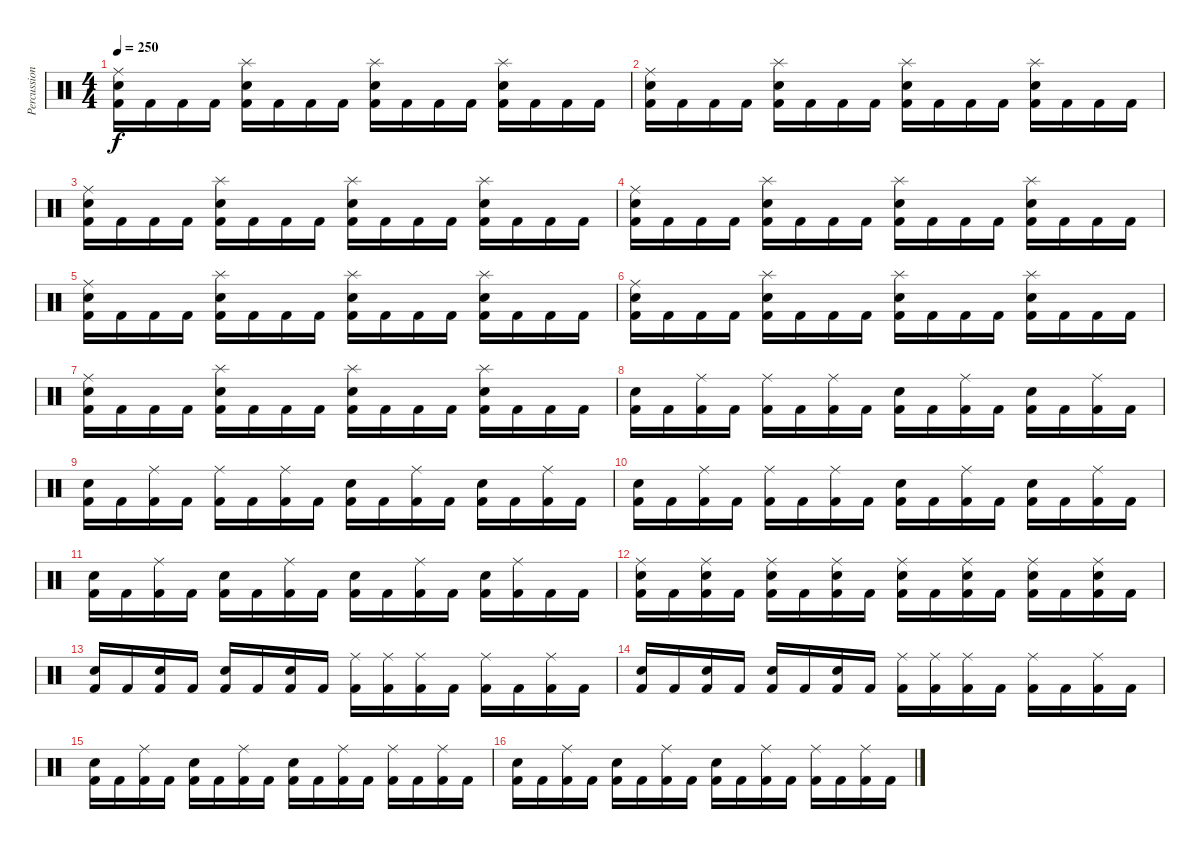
\track ("Percussion" "Percussion") {instrument percussion}
\staff {score}
\articulation defaults
\ts (4 4)
\tempo 250
\clef neutral
\ks c
("Ride (middle)" "Electric Snare (hit)" "Kick (hit) 2").16{dy f} "Kick (hit) 2".16 "Kick (hit) 2".16 "Kick (hit) 2".16 ("Splash (hit)" "Electric Snare (hit)" "Kick (hit) 2").16 "Kick (hit) 2".16 "Kick (hit) 2".16 "Kick (hit) 2".16 ("Splash (hit)" "Electric Snare (hit)" "Kick (hit) 2").16 "Kick (hit) 2".16 "Kick (hit) 2".16 "Kick (hit) 2".16 ("Splash (hit)" "Electric Snare (hit)" "Kick (hit) 2").16 "Kick (hit) 2".16 "Kick (hit) 2".16 "Kick (hit) 2".16 |
("Ride (middle)" "Electric Snare (hit)" "Kick (hit) 2").16 "Kick (hit) 2".16 "Kick (hit) 2".16 "Kick (hit) 2".16 ("Splash (hit)" "Electric Snare (hit)" "Kick (hit) 2").16 "Kick (hit) 2".16 "Kick (hit) 2".16 "Kick (hit) 2".16 ("Splash (hit)" "Electric Snare (hit)" "Kick (hit) 2").16 "Kick (hit) 2".16 "Kick (hit) 2".16 "Kick (hit) 2".16 ("Splash (hit)" "Electric Snare (hit)" "Kick (hit) 2").16 "Kick (hit) 2".16 "Kick (hit) 2".16 "Kick (hit) 2".16 |
("Ride (middle)" "Electric Snare (hit)" "Kick (hit) 2").16 "Kick (hit) 2".16 "Kick (hit) 2".16 "Kick (hit) 2".16 ("Splash (hit)" "Electric Snare (hit)" "Kick (hit) 2").16 "Kick (hit) 2".16 "Kick (hit) 2".16 "Kick (hit) 2".16 ("Splash (hit)" "Electric Snare (hit)" "Kick (hit) 2").16 "Kick (hit) 2".16 "Kick (hit) 2".16 "Kick (hit) 2".16 ("Splash (hit)" "Electric Snare (hit)" "Kick (hit) 2").16 "Kick (hit) 2".16 "Kick (hit) 2".16 "Kick (hit) 2".16 |
("Ride (middle)" "Electric Snare (hit)" "Kick (hit) 2").16 "Kick (hit) 2".16 "Kick (hit) 2".16 "Kick (hit) 2".16 ("Splash (hit)" "Electric Snare (hit)" "Kick (hit) 2").16 "Kick (hit) 2".16 "Kick (hit) 2".16 "Kick (hit) 2".16 ("Splash (hit)" "Electric Snare (hit)" "Kick (hit) 2").16 "Kick (hit) 2".16 "Kick (hit) 2".16 "Kick (hit) 2".16 ("Splash (hit)" "Electric Snare (hit)" "Kick (hit) 2").16 "Kick (hit) 2".16 "Kick (hit) 2".16 "Kick (hit) 2".16 |
("Ride (middle)" "Electric Snare (hit)" "Kick (hit) 2").16 "Kick (hit) 2".16 "Kick (hit) 2".16 "Kick (hit) 2".16 ("Splash (hit)" "Electric Snare (hit)" "Kick (hit) 2").16 "Kick (hit) 2".16 "Kick (hit) 2".16 "Kick (hit) 2".16 ("Splash (hit)" "Electric Snare (hit)" "Kick (hit) 2").16 "Kick (hit) 2".16 "Kick (hit) 2".16 "Kick (hit) 2".16 ("Splash (hit)" "Electric Snare (hit)" "Kick (hit) 2").16 "Kick (hit) 2".16 "Kick (hit) 2".16 "Kick (hit) 2".16 |
("Ride (middle)" "Electric Snare (hit)" "Kick (hit) 2").16 "Kick (hit) 2".16 "Kick (hit) 2".16 "Kick (hit) 2".16 ("Splash (hit)" "Electric Snare (hit)" "Kick (hit) 2").16 "Kick (hit) 2".16 "Kick (hit) 2".16 "Kick (hit) 2".16 ("Splash (hit)" "Electric Snare (hit)" "Kick (hit) 2").16 "Kick (hit) 2".16 "Kick (hit) 2".16 "Kick (hit) 2".16 ("Splash (hit)" "Electric Snare (hit)" "Kick (hit) 2").16 "Kick (hit) 2".16 "Kick (hit) 2".16 "Kick (hit) 2".16 |
("Ride (middle)" "Electric Snare (hit)" "Kick (hit) 2").16 "Kick (hit) 2".16 "Kick (hit) 2".16 "Kick (hit) 2".16 ("Splash (hit)" "Electric Snare (hit)" "Kick (hit) 2").16 "Kick (hit) 2".16 "Kick (hit) 2".16 "Kick (hit) 2".16 ("Splash (hit)" "Electric Snare (hit)" "Kick (hit) 2").16 "Kick (hit) 2".16 "Kick (hit) 2".16 "Kick (hit) 2".16 ("Splash (hit)" "Electric Snare (hit)" "Kick (hit) 2").16 "Kick (hit) 2".16 "Kick (hit) 2".16 "Kick (hit) 2".16 |
("Electric Snare (hit)" "Kick (hit) 2").16 "Kick (hit) 2".16 ("Ride (middle)" "Kick (hit) 2").16 "Kick (hit) 2".16 ("Ride (middle)" "Kick (hit) 2").16 "Kick (hit) 2".16 ("Ride (middle)" "Kick (hit) 2").16 "Kick (hit) 2".16 ("Electric Snare (hit)" "Kick (hit) 2").16 "Kick (hit) 2".16 ("Ride (middle)" "Kick (hit) 2").16 "Kick (hit) 2".16 ("Electric Snare (hit)" "Kick (hit) 2").16 "Kick (hit) 2".16 ("Ride (middle)" "Kick (hit) 2").16 "Kick (hit) 2".16 |
("Electric Snare (hit)" "Kick (hit) 2").16 "Kick (hit) 2".16 ("Ride (middle)" "Kick (hit) 2").16 "Kick (hit) 2".16 ("Ride (middle)" "Kick (hit) 2").16 "Kick (hit) 2".16 ("Ride (middle)" "Kick (hit) 2").16 "Kick (hit) 2".16 ("Electric Snare (hit)" "Kick (hit) 2").16 "Kick (hit) 2".16 ("Ride (middle)" "Kick (hit) 2").16 "Kick (hit) 2".16 ("Electric Snare (hit)" "Kick (hit) 2").16 "Kick (hit) 2".16 ("Ride (middle)" "Kick (hit) 2").16 "Kick (hit) 2".16 |
("Electric Snare (hit)" "Kick (hit) 2").16 "Kick (hit) 2".16 ("Ride (middle)" "Kick (hit) 2").16 "Kick (hit) 2".16 ("Ride (middle)" "Kick (hit) 2").16 "Kick (hit) 2".16 ("Ride (middle)" "Kick (hit) 2").16 "Kick (hit) 2".16 ("Electric Snare (hit)" "Kick (hit) 2").16 "Kick (hit) 2".16 ("Ride (middle)" "Kick (hit) 2").16 "Kick (hit) 2".16 ("Electric Snare (hit)" "Kick (hit) 2").16 "Kick (hit) 2".16 ("Ride (middle)" "Kick (hit) 2").16 "Kick (hit) 2".16 |
("Electric Snare (hit)" "Kick (hit) 2").16 "Kick (hit) 2".16 ("Ride (middle)" "Kick (hit) 2").16 "Kick (hit) 2".16 ("Electric Snare (hit)" "Kick (hit) 2").16 "Kick (hit) 2".16 ("Ride (middle)" "Kick (hit) 2").16 "Kick (hit) 2".16 ("Electric Snare (hit)" "Kick (hit) 2").16 "Kick (hit) 2".16 ("Ride (middle)" "Kick (hit) 2").16 "Kick (hit) 2".16 ("Electric Snare (hit)" "Kick (hit) 2").16 ("Ride (middle)" "Kick (hit) 2").16 "Kick (hit) 2".16 "Kick (hit) 2".16 |
("Ride (middle)" "Electric Snare (hit)" "Kick (hit) 2").16 "Kick (hit) 2".16 ("Ride (middle)" "Electric Snare (hit)" "Kick (hit) 2").16 "Kick (hit) 2".16 ("Ride (middle)" "Electric Snare (hit)" "Kick (hit) 2").16 "Kick (hit) 2".16 ("Ride (middle)" "Electric Snare (hit)" "Kick (hit) 2").16 "Kick (hit) 2".16 ("Ride (middle)" "Electric Snare (hit)" "Kick (hit) 2").16 "Kick (hit) 2".16 ("Ride (middle)" "Electric Snare (hit)" "Kick (hit) 2").16 "Kick (hit) 2".16 ("Ride (middle)" "Electric Snare (hit)" "Kick (hit) 2").16 "Kick (hit) 2".16 ("Ride (middle)" "Electric Snare (hit)" "Kick (hit) 2").16 "Kick (hit) 2".16 |
("Electric Snare (hit)" "Kick (hit) 2").16 "Kick (hit) 2".16 ("Electric Snare (hit)" "Kick (hit) 2").16 "Kick (hit) 2".16 ("Electric Snare (hit)" "Kick (hit) 2").16 "Kick (hit) 2".16 ("Electric Snare (hit)" "Kick (hit) 2").16 "Kick (hit) 2".16 ("Ride (middle)" "Kick (hit) 2").16 ("Ride (middle)" "Kick (hit) 2").16 ("Ride (middle)" "Kick (hit) 2").16 "Kick (hit) 2".16 ("Ride (middle)" "Kick (hit) 2").16 "Kick (hit) 2".16 ("Ride (middle)" "Kick (hit) 2").16 "Kick (hit) 2".16 |
("Electric Snare (hit)" "Kick (hit) 2").16 "Kick (hit) 2".16 ("Electric Snare (hit)" "Kick (hit) 2").16 "Kick (hit) 2".16 ("Electric Snare (hit)" "Kick (hit) 2").16 "Kick (hit) 2".16 ("Electric Snare (hit)" "Kick (hit) 2").16 "Kick (hit) 2".16 ("Ride (middle)" "Kick (hit) 2").16 ("Ride (middle)" "Kick (hit) 2").16 ("Ride (middle)" "Kick (hit) 2").16 "Kick (hit) 2".16 ("Ride (middle)" "Kick (hit) 2").16 "Kick (hit) 2".16 ("Ride (middle)" "Kick (hit) 2").16 "Kick (hit) 2".16 |
("Electric Snare (hit)" "Kick (hit) 2").16 "Kick (hit) 2".16 ("Ride (middle)" "Kick (hit) 2").16 "Kick (hit) 2".16 ("Electric Snare (hit)" "Kick (hit) 2").16 "Kick (hit) 2".16 ("Ride (middle)" "Kick (hit) 2").16 "Kick (hit) 2".16 ("Electric Snare (hit)" "Kick (hit) 2").16 "Kick (hit) 2".16 ("Ride (middle)" "Kick (hit) 2").16 "Kick (hit) 2".16 ("Ride (middle)" "Kick (hit) 2").16 "Kick (hit) 2".16 ("Ride (middle)" "Kick (hit) 2").16 "Kick (hit) 2".16 |
("Electric Snare (hit)" "Kick (hit) 2").16 "Kick (hit) 2".16 ("Ride (middle)" "Kick (hit) 2").16 "Kick (hit) 2".16 ("Electric Snare (hit)" "Kick (hit) 2").16 "Kick (hit) 2".16 ("Ride (middle)" "Kick (hit) 2").16 "Kick (hit) 2".16 ("Electric Snare (hit)" "Kick (hit) 2").16 "Kick (hit) 2".16 ("Ride (middle)" "Kick (hit) 2").16 "Kick (hit) 2".16 ("Ride (middle)" "Kick (hit) 2").16 "Kick (hit) 2".16 ("Ride (middle)" "Kick (hit) 2").16 "Kick (hit) 2".16
